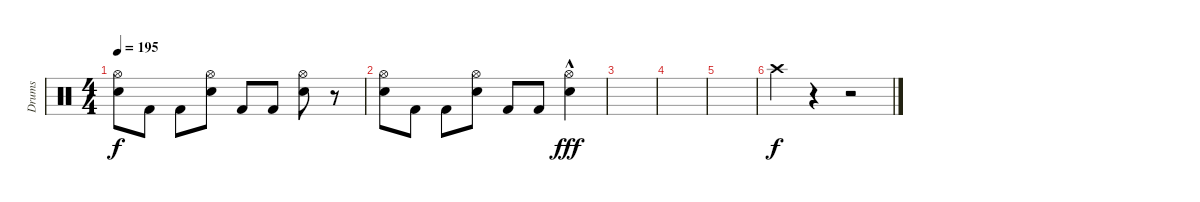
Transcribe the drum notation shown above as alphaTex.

\track ("Drums" "Drums") {instrument percussion}
\staff {score}
\articulation defaults
\ts (4 4)
\tempo 195
\clef neutral
\ks c
("Hi-Hat (open)" "Electric Snare (hit)").8{dy f} "Kick (hit) 2".8 "Kick (hit) 2".8 ("Hi-Hat (open)" "Electric Snare (hit)").8 "Kick (hit) 2".8 "Kick (hit) 2".8 ("Hi-Hat (open)" "Electric Snare (hit)").8 r.8 |
("Hi-Hat (open)" "Electric Snare (hit)").8 "Kick (hit) 2".8 "Kick (hit) 2".8 ("Hi-Hat (open)" "Electric Snare (hit)").8 "Kick (hit) 2".8 "Kick (hit) 2".8 ("Hi-Hat (open)" "Electric Snare (hit)"{hac}).4{dy fff} |
|
|
|
"Crash high (hit)".4{dy f volume 16} r.4{volume 0} r.2
